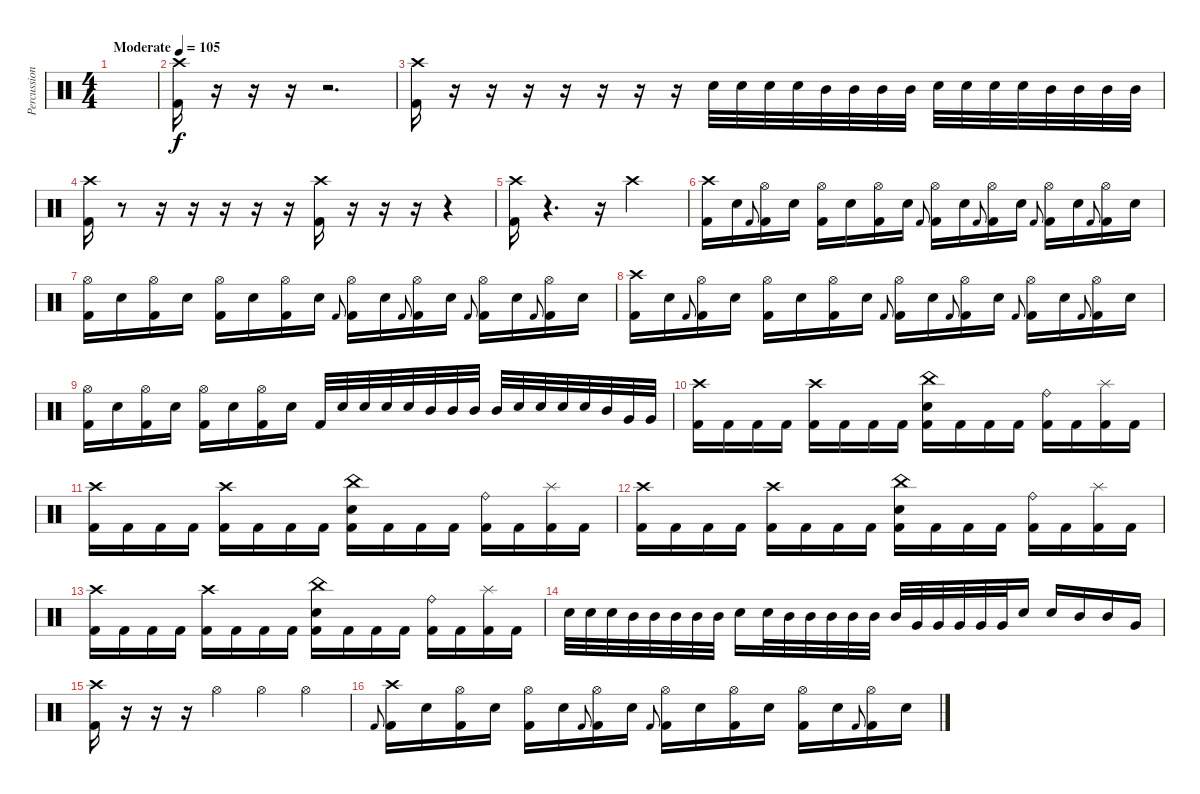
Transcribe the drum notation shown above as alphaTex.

\track ("Percussion" "Percussion") {instrument percussion}
\staff {score}
\articulation defaults
\ts (4 4)
\tempo (105 "Moderate")
\clef neutral
\ks c
|
("Crash high (hit)" "Kick (hit) 2").16 r.16 r.16 r.16 r.2{d} |
("Crash high (hit)" "Kick (hit) 2").16 r.16 r.16 r.16 r.16 r.16 r.16 r.16 "Snare (hit) 2".32 "Snare (hit) 2".32 "Snare (hit) 2".32 "Snare (hit) 2".32 "Mid Tom (hit)".32 "Mid Tom (hit)".32 "Mid Tom (hit)".32 "Mid Tom (hit)".32 "Snare (hit) 2".32 "Snare (hit) 2".32 "Snare (hit) 2".32 "Snare (hit) 2".32 "Mid Tom (hit)".32 "Mid Tom (hit)".32 "Mid Tom (hit)".32 "Mid Tom (hit)".32 |
("Crash high (hit)" "Kick (hit) 2").16 r.8 r.16 r.16 r.16 r.16 r.16 ("Crash high (hit)" "Kick (hit) 2").16 r.16 r.16 r.16 r.4 |
("Crash high (hit)" "Kick (hit) 2").16 r.4{d} r.16 "Crash high (hit)".2 |
("Crash high (hit)" "Kick (hit) 2").16 "Snare (hit) 2".16 "Kick (hit) 2".8{gr onbeat} ("Hi-Hat (open)" "Kick (hit) 2").16 "Snare (hit) 2".16 ("Hi-Hat (open)" "Kick (hit) 2").16 "Snare (hit) 2".16 ("Hi-Hat (open)" "Kick (hit) 2").16 "Snare (hit) 2".16 "Kick (hit) 2".8{gr onbeat} ("Hi-Hat (open)" "Kick (hit) 2").16 "Snare (hit) 2".16 "Kick (hit) 2".8{gr onbeat} ("Hi-Hat (open)" "Kick (hit) 2").16 "Snare (hit) 2".16 "Kick (hit) 2".8{gr onbeat} ("Hi-Hat (open)" "Kick (hit) 2").16 "Snare (hit) 2".16 "Kick (hit) 2".8{gr onbeat} ("Hi-Hat (open)" "Kick (hit) 2").16 "Snare (hit) 2".16 |
("Hi-Hat (open)" "Kick (hit) 2").16 "Snare (hit) 2".16 ("Hi-Hat (open)" "Kick (hit) 2").16 "Snare (hit) 2".16 ("Hi-Hat (open)" "Kick (hit) 2").16 "Snare (hit) 2".16 ("Hi-Hat (open)" "Kick (hit) 2").16 "Snare (hit) 2".16 "Kick (hit) 2".8{gr onbeat} ("Hi-Hat (open)" "Kick (hit) 2").16 "Snare (hit) 2".16 "Kick (hit) 2".8{gr onbeat} ("Hi-Hat (open)" "Kick (hit) 2").16 "Snare (hit) 2".16 "Kick (hit) 2".8{gr onbeat} ("Hi-Hat (open)" "Kick (hit) 2").16 "Snare (hit) 2".16 "Kick (hit) 2".8{gr onbeat} ("Hi-Hat (open)" "Kick (hit) 2").16 "Snare (hit) 2".16 |
("Crash high (hit)" "Kick (hit) 2").16 "Snare (hit) 2".16 "Kick (hit) 2".8{gr onbeat} ("Hi-Hat (open)" "Kick (hit) 2").16 "Snare (hit) 2".16 ("Hi-Hat (open)" "Kick (hit) 2").16 "Snare (hit) 2".16 ("Hi-Hat (open)" "Kick (hit) 2").16 "Snare (hit) 2".16 "Kick (hit) 2".8{gr onbeat} ("Hi-Hat (open)" "Kick (hit) 2").16 "Snare (hit) 2".16 "Kick (hit) 2".8{gr onbeat} ("Hi-Hat (open)" "Kick (hit) 2").16 "Snare (hit) 2".16 "Kick (hit) 2".8{gr onbeat} ("Hi-Hat (open)" "Kick (hit) 2").16 "Snare (hit) 2".16 "Kick (hit) 2".8{gr onbeat} ("Hi-Hat (open)" "Kick (hit) 2").16 "Snare (hit) 2".16 |
("Hi-Hat (open)" "Kick (hit) 2").16 "Snare (hit) 2".16 ("Hi-Hat (open)" "Kick (hit) 2").16 "Snare (hit) 2".16 ("Hi-Hat (open)" "Kick (hit) 2").16 "Snare (hit) 2".16 ("Hi-Hat (open)" "Kick (hit) 2").16 "Snare (hit) 2".16 "Kick (hit) 2".32 "Snare (hit) 2".32 "Snare (hit) 2".32 "Snare (hit) 2".32 "Snare (hit) 2".32 "Mid Tom (hit)".32 "Mid Tom (hit)".32 "Mid Tom (hit)".32 "Mid Tom (hit)".32 "Snare (hit) 2".32 "Snare (hit) 2".32 "Snare (hit) 2".32 "Snare (hit) 2".32 "Mid Tom (hit)".32 "Very Low Tom (hit)".32 "Very Low Tom (hit)".32 |
("Crash high (hit)" "Kick (hit) 2").16 "Kick (hit) 2".16 "Kick (hit) 2".16 "Kick (hit) 2".16 ("Crash high (hit)" "Kick (hit) 2").16 "Kick (hit) 2".16 "Kick (hit) 2".16 "Kick (hit) 2".16 ("China (hit)" "Snare (hit) 2" "Kick (hit) 2").16 "Kick (hit) 2".16 "Kick (hit) 2".16 "Kick (hit) 2".16 ("Ride (bell)" "Kick (hit) 2").16 "Kick (hit) 2".16 ("Splash (hit)" "Kick (hit) 2").16 "Kick (hit) 2".16 |
("Crash high (hit)" "Kick (hit) 2").16 "Kick (hit) 2".16 "Kick (hit) 2".16 "Kick (hit) 2".16 ("Crash high (hit)" "Kick (hit) 2").16 "Kick (hit) 2".16 "Kick (hit) 2".16 "Kick (hit) 2".16 ("China (hit)" "Snare (hit) 2" "Kick (hit) 2").16 "Kick (hit) 2".16 "Kick (hit) 2".16 "Kick (hit) 2".16 ("Ride (bell)" "Kick (hit) 2").16 "Kick (hit) 2".16 ("Splash (hit)" "Kick (hit) 2").16 "Kick (hit) 2".16 |
("Crash high (hit)" "Kick (hit) 2").16 "Kick (hit) 2".16 "Kick (hit) 2".16 "Kick (hit) 2".16 ("Crash high (hit)" "Kick (hit) 2").16 "Kick (hit) 2".16 "Kick (hit) 2".16 "Kick (hit) 2".16 ("China (hit)" "Snare (hit) 2" "Kick (hit) 2").16 "Kick (hit) 2".16 "Kick (hit) 2".16 "Kick (hit) 2".16 ("Ride (bell)" "Kick (hit) 2").16 "Kick (hit) 2".16 ("Splash (hit)" "Kick (hit) 2").16 "Kick (hit) 2".16 |
("Crash high (hit)" "Kick (hit) 2").16 "Kick (hit) 2".16 "Kick (hit) 2".16 "Kick (hit) 2".16 ("Crash high (hit)" "Kick (hit) 2").16 "Kick (hit) 2".16 "Kick (hit) 2".16 "Kick (hit) 2".16 ("China (hit)" "Snare (hit) 2" "Kick (hit) 2").16 "Kick (hit) 2".16 "Kick (hit) 2".16 "Kick (hit) 2".16 ("Ride (bell)" "Kick (hit) 2").16 "Kick (hit) 2".16 ("Splash (hit)" "Kick (hit) 2").16 "Kick (hit) 2".16 |
"Snare (hit) 2".32 "Snare (hit) 2".32 "Snare (hit) 2".32 "Mid Tom (hit)".32 "Mid Tom (hit)".32 "Mid Tom (hit)".32 "Mid Tom (hit)".32 "Mid Tom (hit)".32 "Snare (hit) 2".16 "Snare (hit) 2".32 "Mid Tom (hit)".32 "Mid Tom (hit)".32 "Mid Tom (hit)".32 "Mid Tom (hit)".32 "Mid Tom (hit)".32 "Mid Tom (hit)".32 "Very Low Tom (hit)".32 "Very Low Tom (hit)".32 "Very Low Tom (hit)".32 "Very Low Tom (hit)".32 "Very Low Tom (hit)".32 "Snare (hit) 2".16 "Snare (hit) 2".16 "Mid Tom (hit)".16 "Mid Tom (hit)".16 "Very Low Tom (hit)".16 |
("Crash high (hit)" "Kick (hit) 2").16 r.16 r.16 r.16 "Hi-Hat (open)".4 "Hi-Hat (open)".4 "Hi-Hat (open)".4 |
"Kick (hit) 2".8{gr onbeat} ("Crash high (hit)" "Kick (hit) 2").16 "Snare (hit) 2".16 ("Hi-Hat (open)" "Kick (hit) 2").16 "Snare (hit) 2".16 ("Hi-Hat (open)" "Kick (hit) 2").16 "Snare (hit) 2".16 "Kick (hit) 2".8{gr onbeat} ("Hi-Hat (open)" "Kick (hit) 2").16 "Snare (hit) 2".16 "Kick (hit) 2".8{gr onbeat} ("Hi-Hat (open)" "Kick (hit) 2").16 "Snare (hit) 2".16 ("Hi-Hat (open)" "Kick (hit) 2").16 "Snare (hit) 2".16 ("Hi-Hat (open)" "Kick (hit) 2").16 "Snare (hit) 2".16 "Kick (hit) 2".8{gr onbeat} ("Hi-Hat (open)" "Kick (hit) 2").16 "Snare (hit) 2".16
